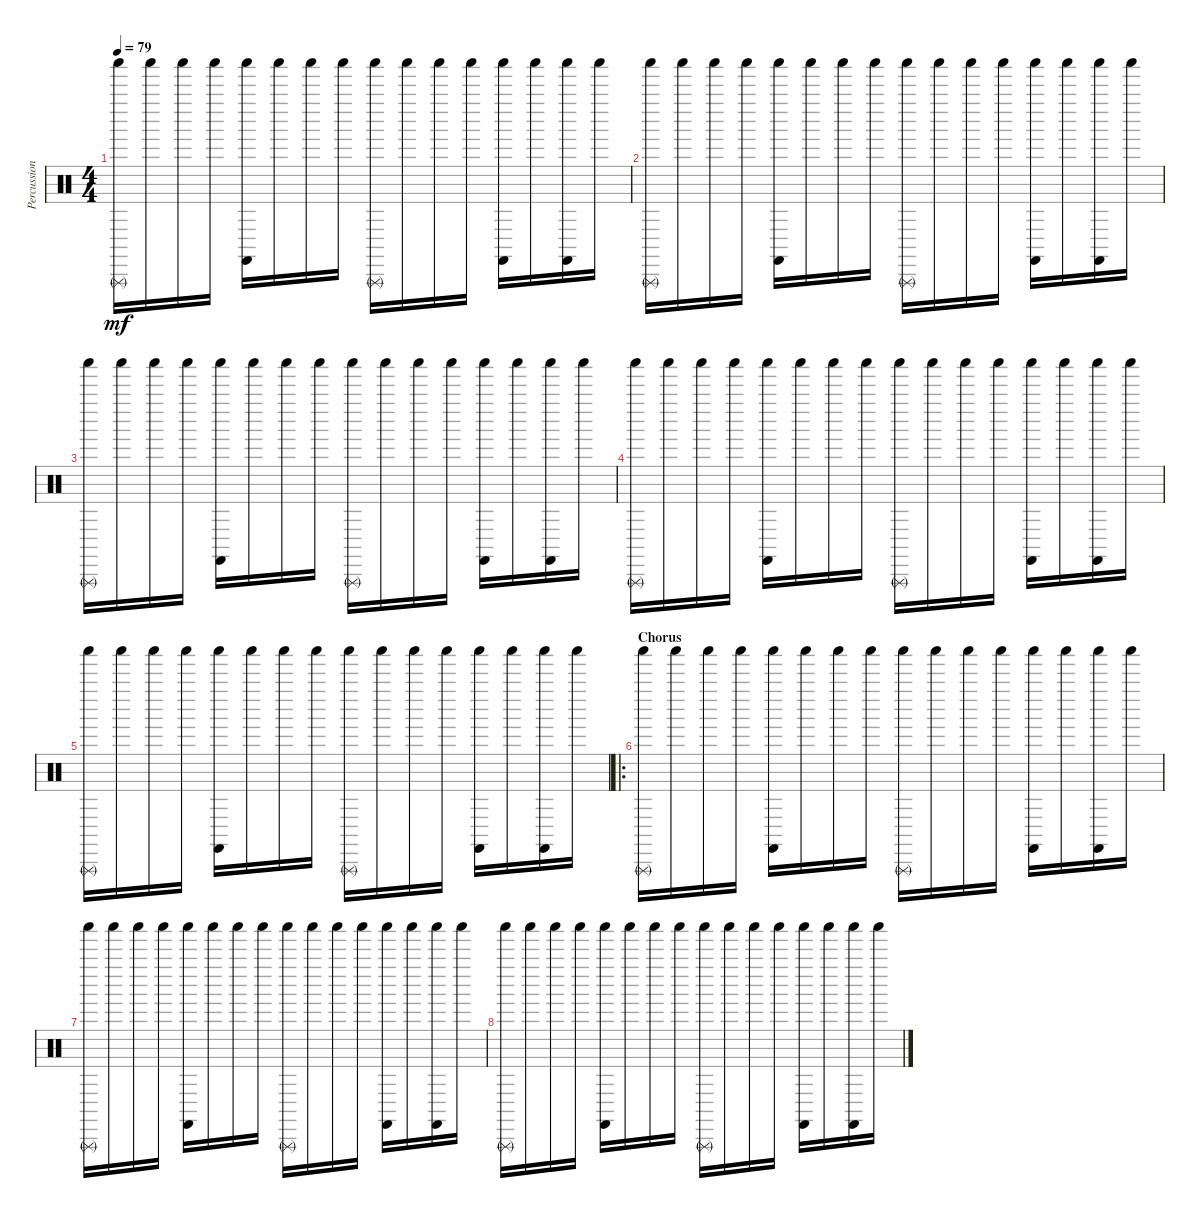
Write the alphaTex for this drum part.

\track ("Percussion" "Percussion") {instrument percussion}
\staff {score}
\articulation defaults
\ts (4 4)
\tempo 79
\clef neutral
\ks c
("Shaker (hit)" "Triangle (rnute)").16{dy mf} "Shaker (hit)".16 "Shaker (hit)".16 "Shaker (hit)".16 ("Shaker (hit)" "Castanets (hit)").16 "Shaker (hit)".16 "Shaker (hit)".16 "Shaker (hit)".16 ("Shaker (hit)" "Triangle (rnute)").16 "Shaker (hit)".16 "Shaker (hit)".16 "Shaker (hit)".16 ("Shaker (hit)" "Castanets (hit)").16 "Shaker (hit)".16 ("Shaker (hit)" "Castanets (hit)").16 "Shaker (hit)".16 |
("Shaker (hit)" "Triangle (rnute)").16 "Shaker (hit)".16 "Shaker (hit)".16 "Shaker (hit)".16 ("Shaker (hit)" "Castanets (hit)").16 "Shaker (hit)".16 "Shaker (hit)".16 "Shaker (hit)".16 ("Shaker (hit)" "Triangle (rnute)").16 "Shaker (hit)".16 "Shaker (hit)".16 "Shaker (hit)".16 ("Shaker (hit)" "Castanets (hit)").16 "Shaker (hit)".16 ("Shaker (hit)" "Castanets (hit)").16 "Shaker (hit)".16 |
("Shaker (hit)" "Triangle (rnute)").16 "Shaker (hit)".16 "Shaker (hit)".16 "Shaker (hit)".16 ("Shaker (hit)" "Castanets (hit)").16 "Shaker (hit)".16 "Shaker (hit)".16 "Shaker (hit)".16 ("Shaker (hit)" "Triangle (rnute)").16 "Shaker (hit)".16 "Shaker (hit)".16 "Shaker (hit)".16 ("Shaker (hit)" "Castanets (hit)").16 "Shaker (hit)".16 ("Shaker (hit)" "Castanets (hit)").16 "Shaker (hit)".16 |
("Shaker (hit)" "Triangle (rnute)").16 "Shaker (hit)".16 "Shaker (hit)".16 "Shaker (hit)".16 ("Shaker (hit)" "Castanets (hit)").16 "Shaker (hit)".16 "Shaker (hit)".16 "Shaker (hit)".16 ("Shaker (hit)" "Triangle (rnute)").16 "Shaker (hit)".16 "Shaker (hit)".16 "Shaker (hit)".16 ("Shaker (hit)" "Castanets (hit)").16 "Shaker (hit)".16 ("Shaker (hit)" "Castanets (hit)").16 "Shaker (hit)".16 |
("Shaker (hit)" "Triangle (rnute)").16 "Shaker (hit)".16 "Shaker (hit)".16 "Shaker (hit)".16 ("Shaker (hit)" "Castanets (hit)").16 "Shaker (hit)".16 "Shaker (hit)".16 "Shaker (hit)".16 ("Shaker (hit)" "Triangle (rnute)").16 "Shaker (hit)".16 "Shaker (hit)".16 "Shaker (hit)".16 ("Shaker (hit)" "Castanets (hit)").16 "Shaker (hit)".16 ("Shaker (hit)" "Castanets (hit)").16 "Shaker (hit)".16 |
\ro
\section ("" "Chorus")
("Shaker (hit)" "Triangle (rnute)").16 "Shaker (hit)".16 "Shaker (hit)".16 "Shaker (hit)".16 ("Shaker (hit)" "Castanets (hit)").16 "Shaker (hit)".16 "Shaker (hit)".16 "Shaker (hit)".16 ("Shaker (hit)" "Triangle (rnute)").16 "Shaker (hit)".16 "Shaker (hit)".16 "Shaker (hit)".16 ("Shaker (hit)" "Castanets (hit)").16 "Shaker (hit)".16 ("Shaker (hit)" "Castanets (hit)").16 "Shaker (hit)".16 |
("Shaker (hit)" "Triangle (rnute)").16 "Shaker (hit)".16 "Shaker (hit)".16 "Shaker (hit)".16 ("Shaker (hit)" "Castanets (hit)").16 "Shaker (hit)".16 "Shaker (hit)".16 "Shaker (hit)".16 ("Shaker (hit)" "Triangle (rnute)").16 "Shaker (hit)".16 "Shaker (hit)".16 "Shaker (hit)".16 ("Shaker (hit)" "Castanets (hit)").16 "Shaker (hit)".16 ("Shaker (hit)" "Castanets (hit)").16 "Shaker (hit)".16 |
("Shaker (hit)" "Triangle (rnute)").16 "Shaker (hit)".16 "Shaker (hit)".16 "Shaker (hit)".16 ("Shaker (hit)" "Castanets (hit)").16 "Shaker (hit)".16 "Shaker (hit)".16 "Shaker (hit)".16 ("Shaker (hit)" "Triangle (rnute)").16 "Shaker (hit)".16 "Shaker (hit)".16 "Shaker (hit)".16 ("Shaker (hit)" "Castanets (hit)").16 "Shaker (hit)".16 ("Shaker (hit)" "Castanets (hit)").16 "Shaker (hit)".16
